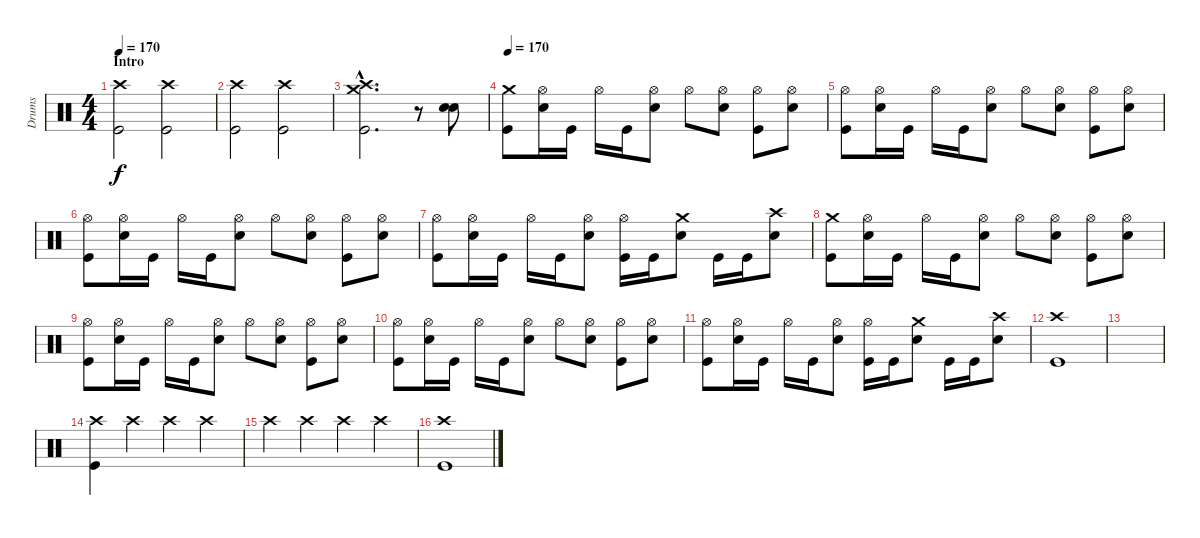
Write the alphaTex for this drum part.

\track ("Drums" "Drums") {instrument percussion}
\staff {score}
\articulation defaults
\ts (4 4)
\section ("" "Intro")
\tempo 170
\tempo 150
\tempo 170
\clef neutral
\ks c
("Crash high (hit)" "Kick (hit)").2{dy f} ("Crash high (hit)" "Kick (hit)").2 |
("Crash high (hit)" "Kick (hit)").2 ("Crash high (hit)" "Kick (hit)").2 |
("Crash high (hit)"{hac} "Crash medium (hit)"{hac} "Kick (hit)"{hac}).2{d} r.8 ("Snare (hit) 2" "Snare (hit) 2").8 |
\tempo 170
("Crash medium (hit)" "Kick (hit)").8 ("Hi-Hat (open)" "Snare (hit) 2").16 "Kick (hit)".16 "Hi-Hat (open)".16 "Kick (hit)".16 ("Hi-Hat (open)" "Snare (hit) 2").8 "Hi-Hat (open)".8 ("Hi-Hat (open)" "Snare (hit) 2").8 ("Hi-Hat (open)" "Kick (hit)").8 ("Hi-Hat (open)" "Snare (hit) 2").8 |
("Hi-Hat (open)" "Kick (hit)").8 ("Hi-Hat (open)" "Snare (hit) 2").16 "Kick (hit)".16 "Hi-Hat (open)".16 "Kick (hit)".16 ("Hi-Hat (open)" "Snare (hit) 2").8 "Hi-Hat (open)".8 ("Hi-Hat (open)" "Snare (hit) 2").8 ("Hi-Hat (open)" "Kick (hit)").8 ("Hi-Hat (open)" "Snare (hit) 2").8 |
("Hi-Hat (open)" "Kick (hit)").8 ("Hi-Hat (open)" "Snare (hit) 2").16 "Kick (hit)".16 "Hi-Hat (open)".16 "Kick (hit)".16 ("Hi-Hat (open)" "Snare (hit) 2").8 "Hi-Hat (open)".8 ("Hi-Hat (open)" "Snare (hit) 2").8 ("Hi-Hat (open)" "Kick (hit)").8 ("Hi-Hat (open)" "Snare (hit) 2").8 |
("Hi-Hat (open)" "Kick (hit)").8 ("Hi-Hat (open)" "Snare (hit) 2").16 "Kick (hit)".16 "Hi-Hat (open)".16 "Kick (hit)".16 ("Hi-Hat (open)" "Snare (hit) 2").8 ("Hi-Hat (open)" "Kick (hit)").16 "Kick (hit)".16 ("Crash medium (hit)" "Snare (hit) 2").8 "Kick (hit)".16 "Kick (hit)".16 ("Crash high (hit)" "Snare (hit) 2").8 |
("Crash medium (hit)" "Kick (hit)").8 ("Hi-Hat (open)" "Snare (hit) 2").16 "Kick (hit)".16 "Hi-Hat (open)".16 "Kick (hit)".16 ("Hi-Hat (open)" "Snare (hit) 2").8 "Hi-Hat (open)".8 ("Hi-Hat (open)" "Snare (hit) 2").8 ("Hi-Hat (open)" "Kick (hit)").8 ("Hi-Hat (open)" "Snare (hit) 2").8 |
("Hi-Hat (open)" "Kick (hit)").8 ("Hi-Hat (open)" "Snare (hit) 2").16 "Kick (hit)".16 "Hi-Hat (open)".16 "Kick (hit)".16 ("Hi-Hat (open)" "Snare (hit) 2").8 "Hi-Hat (open)".8 ("Hi-Hat (open)" "Snare (hit) 2").8 ("Hi-Hat (open)" "Kick (hit)").8 ("Hi-Hat (open)" "Snare (hit) 2").8 |
("Hi-Hat (open)" "Kick (hit)").8 ("Hi-Hat (open)" "Snare (hit) 2").16 "Kick (hit)".16 "Hi-Hat (open)".16 "Kick (hit)".16 ("Hi-Hat (open)" "Snare (hit) 2").8 "Hi-Hat (open)".8 ("Hi-Hat (open)" "Snare (hit) 2").8 ("Hi-Hat (open)" "Kick (hit)").8 ("Hi-Hat (open)" "Snare (hit) 2").8 |
("Hi-Hat (open)" "Kick (hit)").8 ("Hi-Hat (open)" "Snare (hit) 2").16 "Kick (hit)".16 "Hi-Hat (open)".16 "Kick (hit)".16 ("Hi-Hat (open)" "Snare (hit) 2").8 ("Hi-Hat (open)" "Kick (hit)").16 "Kick (hit)".16 ("Crash medium (hit)" "Snare (hit) 2").8 "Kick (hit)".16 "Kick (hit)".16 ("Crash high (hit)" "Snare (hit) 2").8 |
("Crash high (hit)" "Kick (hit)").1 |
|
("Crash high (hit)" "Kick (hit)").4 "Crash high (hit)".4{volume 8} "Crash high (hit)".4 "Crash high (hit)".4 |
"Crash high (hit)".4 "Crash high (hit)".4 "Crash high (hit)".4 "Crash high (hit)".4 |
("Crash high (hit)" "Kick (hit)").1{volume 13}
